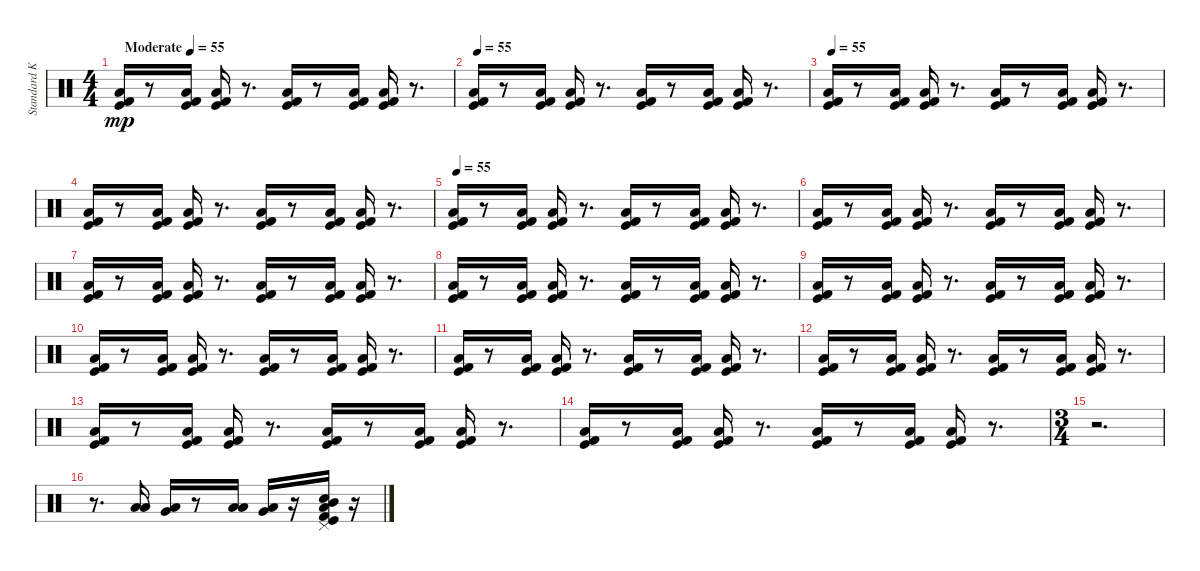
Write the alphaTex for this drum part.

\track ("Standard Kit" "Standard K") {instrument percussion}
\staff {score}
\articulation defaults
\ts (4 4)
\tempo (55 "Moderate")
\clef neutral
\ks c
("Kick (hit)" "Kick (hit) 2" "Low Floor Tom (hit)").16{dy mp} r.8 ("Kick (hit)" "Kick (hit) 2" "Low Floor Tom (hit)").16 ("Kick (hit)" "Kick (hit) 2" "Low Floor Tom (hit)").16 r.8{d} ("Kick (hit)" "Kick (hit) 2" "Low Floor Tom (hit)").16 r.8 ("Kick (hit)" "Kick (hit) 2" "Low Floor Tom (hit)").16 ("Kick (hit)" "Kick (hit) 2" "Low Floor Tom (hit)").16 r.8{d} |
\tempo 55
("Kick (hit)" "Kick (hit) 2" "Low Floor Tom (hit)").16{volume 12} r.8 ("Kick (hit)" "Kick (hit) 2" "Low Floor Tom (hit)").16 ("Kick (hit)" "Kick (hit) 2" "Low Floor Tom (hit)").16 r.8{d} ("Kick (hit)" "Kick (hit) 2" "Low Floor Tom (hit)").16 r.8 ("Kick (hit)" "Kick (hit) 2" "Low Floor Tom (hit)").16 ("Kick (hit)" "Kick (hit) 2" "Low Floor Tom (hit)").16 r.8{d} |
\tempo 55
("Kick (hit)" "Kick (hit) 2" "Low Floor Tom (hit)").16 r.8 ("Kick (hit)" "Kick (hit) 2" "Low Floor Tom (hit)").16 ("Kick (hit)" "Kick (hit) 2" "Low Floor Tom (hit)").16 r.8{d} ("Kick (hit)" "Kick (hit) 2" "Low Floor Tom (hit)").16 r.8 ("Kick (hit)" "Kick (hit) 2" "Low Floor Tom (hit)").16 ("Kick (hit)" "Kick (hit) 2" "Low Floor Tom (hit)").16 r.8{d} |
("Kick (hit)" "Kick (hit) 2" "Low Floor Tom (hit)").16 r.8 ("Kick (hit)" "Kick (hit) 2" "Low Floor Tom (hit)").16 ("Kick (hit)" "Kick (hit) 2" "Low Floor Tom (hit)").16 r.8{d} ("Kick (hit)" "Kick (hit) 2" "Low Floor Tom (hit)").16 r.8 ("Kick (hit)" "Kick (hit) 2" "Low Floor Tom (hit)").16 ("Kick (hit)" "Kick (hit) 2" "Low Floor Tom (hit)").16 r.8{d} |
\tempo 55
("Kick (hit)" "Kick (hit) 2" "Low Floor Tom (hit)").16 r.8 ("Kick (hit)" "Kick (hit) 2" "Low Floor Tom (hit)").16 ("Kick (hit)" "Kick (hit) 2" "Low Floor Tom (hit)").16 r.8{d} ("Kick (hit)" "Kick (hit) 2" "Low Floor Tom (hit)").16 r.8 ("Kick (hit)" "Kick (hit) 2" "Low Floor Tom (hit)").16 ("Kick (hit)" "Kick (hit) 2" "Low Floor Tom (hit)").16 r.8{d} |
("Kick (hit)" "Kick (hit) 2" "Low Floor Tom (hit)").16 r.8 ("Kick (hit)" "Kick (hit) 2" "Low Floor Tom (hit)").16 ("Kick (hit)" "Kick (hit) 2" "Low Floor Tom (hit)").16 r.8{d} ("Kick (hit)" "Kick (hit) 2" "Low Floor Tom (hit)").16 r.8 ("Kick (hit)" "Kick (hit) 2" "Low Floor Tom (hit)").16 ("Kick (hit)" "Kick (hit) 2" "Low Floor Tom (hit)").16 r.8{d} |
("Kick (hit)" "Kick (hit) 2" "Low Floor Tom (hit)").16 r.8 ("Kick (hit)" "Kick (hit) 2" "Low Floor Tom (hit)").16 ("Kick (hit)" "Kick (hit) 2" "Low Floor Tom (hit)").16 r.8{d} ("Kick (hit)" "Kick (hit) 2" "Low Floor Tom (hit)").16 r.8 ("Kick (hit)" "Kick (hit) 2" "Low Floor Tom (hit)").16 ("Kick (hit)" "Kick (hit) 2" "Low Floor Tom (hit)").16 r.8{d} |
("Kick (hit)" "Kick (hit) 2" "Low Floor Tom (hit)").16 r.8 ("Kick (hit)" "Kick (hit) 2" "Low Floor Tom (hit)").16 ("Kick (hit)" "Kick (hit) 2" "Low Floor Tom (hit)").16 r.8{d} ("Kick (hit)" "Kick (hit) 2" "Low Floor Tom (hit)").16 r.8 ("Kick (hit)" "Kick (hit) 2" "Low Floor Tom (hit)").16 ("Kick (hit)" "Kick (hit) 2" "Low Floor Tom (hit)").16 r.8{d} |
("Kick (hit)" "Kick (hit) 2" "Low Floor Tom (hit)").16 r.8 ("Kick (hit)" "Kick (hit) 2" "Low Floor Tom (hit)").16 ("Kick (hit)" "Kick (hit) 2" "Low Floor Tom (hit)").16 r.8{d} ("Kick (hit)" "Kick (hit) 2" "Low Floor Tom (hit)").16 r.8 ("Kick (hit)" "Kick (hit) 2" "Low Floor Tom (hit)").16 ("Kick (hit)" "Kick (hit) 2" "Low Floor Tom (hit)").16 r.8{d} |
("Kick (hit)" "Kick (hit) 2" "Low Floor Tom (hit)").16 r.8 ("Kick (hit)" "Kick (hit) 2" "Low Floor Tom (hit)").16 ("Kick (hit)" "Kick (hit) 2" "Low Floor Tom (hit)").16 r.8{d} ("Kick (hit)" "Kick (hit) 2" "Low Floor Tom (hit)").16 r.8 ("Kick (hit)" "Kick (hit) 2" "Low Floor Tom (hit)").16 ("Kick (hit)" "Kick (hit) 2" "Low Floor Tom (hit)").16 r.8{d} |
("Kick (hit)" "Kick (hit) 2" "Low Floor Tom (hit)").16 r.8 ("Kick (hit)" "Kick (hit) 2" "Low Floor Tom (hit)").16 ("Kick (hit)" "Kick (hit) 2" "Low Floor Tom (hit)").16 r.8{d} ("Kick (hit)" "Kick (hit) 2" "Low Floor Tom (hit)").16 r.8 ("Kick (hit)" "Kick (hit) 2" "Low Floor Tom (hit)").16 ("Kick (hit)" "Kick (hit) 2" "Low Floor Tom (hit)").16 r.8{d} |
("Kick (hit)" "Kick (hit) 2" "Low Floor Tom (hit)").16 r.8 ("Kick (hit)" "Kick (hit) 2" "Low Floor Tom (hit)").16 ("Kick (hit)" "Kick (hit) 2" "Low Floor Tom (hit)").16 r.8{d} ("Kick (hit)" "Kick (hit) 2" "Low Floor Tom (hit)").16 r.8 ("Kick (hit)" "Kick (hit) 2" "Low Floor Tom (hit)").16 ("Kick (hit)" "Kick (hit) 2" "Low Floor Tom (hit)").16 r.8{d} |
("Kick (hit)" "Kick (hit) 2" "Low Floor Tom (hit)").16 r.8 ("Kick (hit)" "Kick (hit) 2" "Low Floor Tom (hit)").16 ("Kick (hit)" "Kick (hit) 2" "Low Floor Tom (hit)").16 r.8{d} ("Kick (hit)" "Kick (hit) 2" "Low Floor Tom (hit)").16 r.8 ("Kick (hit)" "Kick (hit) 2" "Low Floor Tom (hit)").16 ("Kick (hit)" "Kick (hit) 2" "Low Floor Tom (hit)").16 r.8{d} |
("Kick (hit)" "Kick (hit) 2" "Low Floor Tom (hit)").16 r.8 ("Kick (hit)" "Kick (hit) 2" "Low Floor Tom (hit)").16 ("Kick (hit)" "Kick (hit) 2" "Low Floor Tom (hit)").16 r.8{d} ("Kick (hit)" "Kick (hit) 2" "Low Floor Tom (hit)").16 r.8 ("Kick (hit)" "Kick (hit) 2" "Low Floor Tom (hit)").16 ("Kick (hit)" "Kick (hit) 2" "Low Floor Tom (hit)").16 r.8{d} |
\ts (3 4)
r.2{d} |
r.8{d} ("Low Floor Tom (hit)" "Low Tom (hit)").16 ("Low Floor Tom (hit)" "Very Low Tom (hit)").16 r.8 ("Low Floor Tom (hit)" "Low Tom (hit)").16 ("Low Floor Tom (hit)" "Very Low Tom (hit)").16 r.16 ("Electric Snare (hit)" "Pedal Hi-Hat (hit)" "Kick (hit)" "Kick (hit) 2" "Low Floor Tom (hit)" "Mid Tom (hit)").16 r.16
